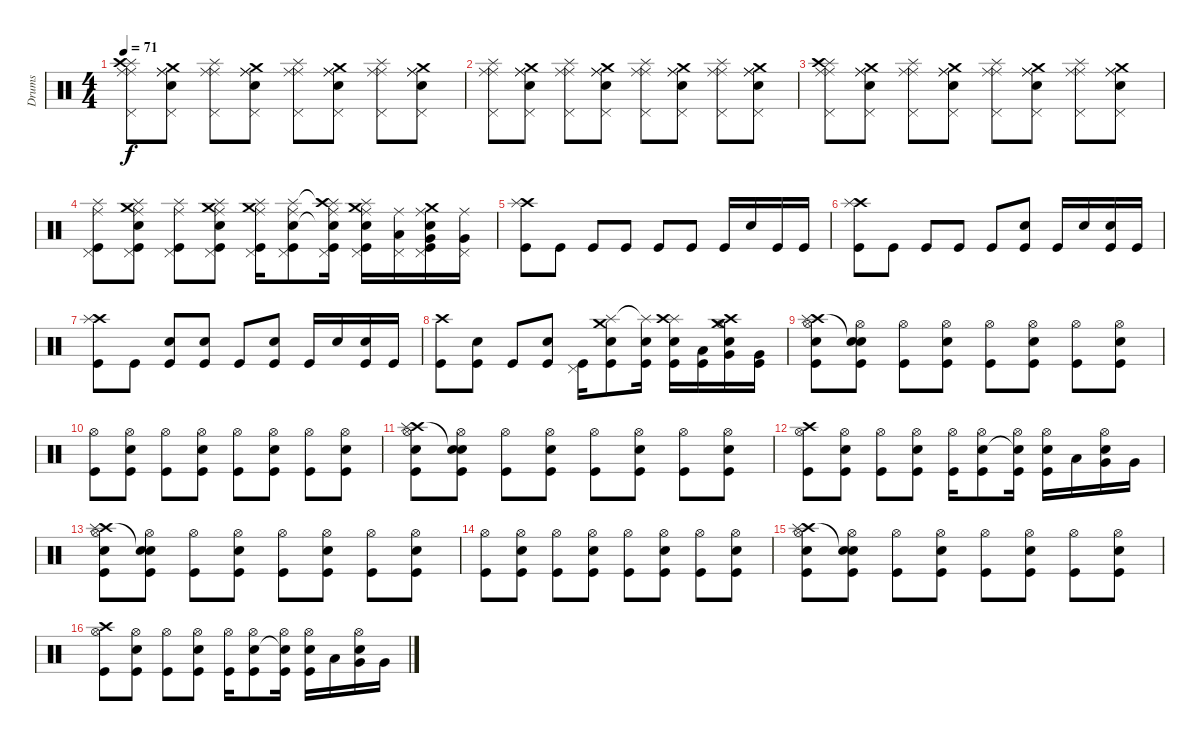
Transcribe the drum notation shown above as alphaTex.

\track ("Drums" "Drums") {instrument percussion}
\staff {score}
\articulation defaults
\ts (4 4)
\tempo 71
\clef neutral
\ks c
("Splash (hit)" "Crash high (hit)" "Ride (middle)" "Pedal Hi-Hat (hit)" "Ride (middle)").8{dy f} ("Snare (hit) 2" "Ride (middle)" "Pedal Hi-Hat (hit)" "Ride (middle)" "Crash medium (hit)").8 ("Ride (middle)" "Pedal Hi-Hat (hit)" "Ride (middle)" "Splash (hit)").8 ("Electric Snare (hit)" "Ride (middle)" "Pedal Hi-Hat (hit)" "Ride (middle)" "Crash medium (hit)").8 ("Ride (middle)" "Pedal Hi-Hat (hit)" "Ride (middle)" "Splash (hit)").8 ("Snare (hit) 2" "Ride (middle)" "Pedal Hi-Hat (hit)" "Ride (middle)" "Crash medium (hit)").8 ("Ride (middle)" "Pedal Hi-Hat (hit)" "Ride (middle)" "Splash (hit)").8 ("Electric Snare (hit)" "Ride (middle)" "Pedal Hi-Hat (hit)" "Ride (middle)" "Crash medium (hit)").8 |
("Ride (middle)" "Pedal Hi-Hat (hit)" "Ride (middle)" "Splash (hit)").8 ("Snare (hit) 2" "Ride (middle)" "Pedal Hi-Hat (hit)" "Ride (middle)" "Crash medium (hit)").8 ("Ride (middle)" "Pedal Hi-Hat (hit)" "Ride (middle)" "Splash (hit)").8 ("Electric Snare (hit)" "Ride (middle)" "Pedal Hi-Hat (hit)" "Ride (middle)" "Crash medium (hit)").8 ("Ride (middle)" "Pedal Hi-Hat (hit)" "Ride (middle)" "Splash (hit)").8 ("Snare (hit) 2" "Ride (middle)" "Pedal Hi-Hat (hit)" "Ride (middle)" "Crash medium (hit)").8 ("Ride (middle)" "Pedal Hi-Hat (hit)" "Ride (middle)" "Splash (hit)").8 ("Electric Snare (hit)" "Ride (middle)" "Pedal Hi-Hat (hit)" "Ride (middle)" "Crash medium (hit)").8 |
("Splash (hit)" "Crash high (hit)" "Ride (middle)" "Pedal Hi-Hat (hit)" "Ride (middle)").8 ("Snare (hit) 2" "Ride (middle)" "Pedal Hi-Hat (hit)" "Ride (middle)" "Crash medium (hit)").8 ("Ride (middle)" "Pedal Hi-Hat (hit)" "Ride (middle)" "Splash (hit)").8 ("Electric Snare (hit)" "Ride (middle)" "Pedal Hi-Hat (hit)" "Ride (middle)" "Crash medium (hit)").8 ("Ride (middle)" "Pedal Hi-Hat (hit)" "Ride (middle)" "Splash (hit)").8 ("Snare (hit) 2" "Ride (middle)" "Pedal Hi-Hat (hit)" "Ride (middle)" "Crash medium (hit)").8 ("Ride (middle)" "Pedal Hi-Hat (hit)" "Ride (middle)" "Splash (hit)").8 ("Electric Snare (hit)" "Ride (middle)" "Pedal Hi-Hat (hit)" "Ride (middle)" "Crash medium (hit)").8 |
("Splash (hit)" "Kick (hit)" "Pedal Hi-Hat (hit)" "Ride (middle)").8 ("Snare (hit) 2" "Splash (hit)" "Kick (hit)" "Pedal Hi-Hat (hit)" "Ride (middle)" "Crash medium (hit)").8 ("Splash (hit)" "Kick (hit)" "Pedal Hi-Hat (hit)" "Ride (middle)").8 ("Electric Snare (hit)" "Splash (hit)" "Kick (hit)" "Pedal Hi-Hat (hit)" "Ride (middle)" "Crash medium (hit)").8 ("Splash (hit)" "Kick (hit)" "Pedal Hi-Hat (hit)" "Ride (middle)" "Crash medium (hit)").16 ("Snare (hit) 2" "Splash (hit)" "Kick (hit)" "Pedal Hi-Hat (hit)" "Ride (middle)").8 ("Snare (hit) 2"{t} "Splash (hit)"{t} "Kick (hit)" "Pedal Hi-Hat (hit)" "Ride (middle)" "Crash high (hit)").16 ("Electric Snare (hit)" "Splash (hit)" "Kick (hit)" "Pedal Hi-Hat (hit)" "Ride (middle)" "Crash medium (hit)").16 ("Low Floor Tom (hit)" "Pedal Hi-Hat (hit)" "Ride (middle)").16 ("Electric Snare (hit)" "Kick (hit)" "Very Low Tom (hit)" "Pedal Hi-Hat (hit)" "Ride (middle)" "Crash medium (hit)").16 ("Very Low Tom (hit)" "Pedal Hi-Hat (hit)" "Ride (middle)").16 |
("Kick (hit)" "Crash high (hit)" "Splash (hit)").8 "Kick (hit)".8 "Kick (hit)".8 "Kick (hit)".8 "Kick (hit)".8 "Kick (hit)".8 "Kick (hit)".16 "Electric Snare (hit)".16 "Kick (hit)".16 "Kick (hit)".16 |
("Kick (hit)" "Crash high (hit)" "Splash (hit)").8 "Kick (hit)".8 "Kick (hit)".8 "Kick (hit)".8 "Kick (hit)".8 ("Kick (hit)" "Electric Snare (hit)").8 "Kick (hit)".16 "Electric Snare (hit)".16 ("Kick (hit)" "Electric Snare (hit)").16 "Kick (hit)".16 |
("Kick (hit)" "Crash high (hit)" "Splash (hit)").8 "Kick (hit)".8 ("Kick (hit)" "Electric Snare (hit)").8 ("Kick (hit)" "Electric Snare (hit)").8 "Kick (hit)".8 ("Kick (hit)" "Electric Snare (hit)").8 "Kick (hit)".16 "Electric Snare (hit)".16 ("Kick (hit)" "Electric Snare (hit)").16 "Kick (hit)".16 |
("Kick (hit)" "Crash high (hit)").8 ("Snare (hit) 2" "Kick (hit)").8 "Kick (hit)".8 ("Electric Snare (hit)" "Kick (hit)").8 ("Pedal Hi-Hat (hit)" "Kick (hit)").16 ("Snare (hit) 2" "Splash (hit)" "Kick (hit)" "Crash medium (hit)").8 ("Electric Snare (hit)" "Splash (hit)"{t} "Kick (hit)").16 ("Electric Snare (hit)" "Splash (hit)" "Kick (hit)" "Crash high (hit)").16 ("Kick (hit)" "Low Floor Tom (hit)").16 ("Electric Snare (hit)" "Hi-Hat (open)" "Very Low Tom (hit)" "Crash medium (hit)" "Crash high (hit)").16 ("Kick (hit)" "Very Low Tom (hit)").16 |
("Snare (hit) 2" "Hi-Hat (open)" "Kick (hit)" "Crash high (hit)" "Splash (hit)").8 ("Snare (hit) 2" "Hi-Hat (open)" "Kick (hit)" "Snare (hit)"{t}).8 ("Hi-Hat (open)" "Kick (hit)").8 ("Electric Snare (hit)" "Hi-Hat (open)" "Kick (hit)").8 ("Hi-Hat (open)" "Kick (hit)").8 ("Snare (hit) 2" "Hi-Hat (open)" "Kick (hit)").8 ("Hi-Hat (open)" "Kick (hit)").8 ("Electric Snare (hit)" "Hi-Hat (open)" "Kick (hit)").8 |
("Hi-Hat (open)" "Kick (hit)").8 ("Snare (hit) 2" "Hi-Hat (open)" "Kick (hit)").8 ("Hi-Hat (open)" "Kick (hit)").8 ("Electric Snare (hit)" "Hi-Hat (open)" "Kick (hit)").8 ("Hi-Hat (open)" "Kick (hit)").8 ("Snare (hit) 2" "Hi-Hat (open)" "Kick (hit)").8 ("Hi-Hat (open)" "Kick (hit)").8 ("Electric Snare (hit)" "Hi-Hat (open)" "Kick (hit)").8 |
("Snare (hit) 2" "Hi-Hat (open)" "Kick (hit)" "Crash high (hit)" "Splash (hit)").8 ("Snare (hit) 2" "Hi-Hat (open)" "Kick (hit)" "Snare (hit)"{t}).8 ("Hi-Hat (open)" "Kick (hit)").8 ("Electric Snare (hit)" "Hi-Hat (open)" "Kick (hit)").8 ("Hi-Hat (open)" "Kick (hit)").8 ("Snare (hit) 2" "Hi-Hat (open)" "Kick (hit)").8 ("Hi-Hat (open)" "Kick (hit)").8 ("Electric Snare (hit)" "Hi-Hat (open)" "Kick (hit)").8 |
("Hi-Hat (open)" "Kick (hit)" "Crash high (hit)").8 ("Snare (hit) 2" "Hi-Hat (open)" "Kick (hit)").8 ("Hi-Hat (open)" "Kick (hit)").8 ("Electric Snare (hit)" "Hi-Hat (open)" "Kick (hit)").8 ("Hi-Hat (open)" "Kick (hit)").16 ("Snare (hit) 2" "Hi-Hat (open)" "Kick (hit)").8 ("Snare (hit) 2"{t} "Hi-Hat (open)" "Kick (hit)").16 ("Electric Snare (hit)" "Hi-Hat (open)" "Kick (hit)").16 "Low Floor Tom (hit)".16 ("Electric Snare (hit)" "Hi-Hat (open)" "Very Low Tom (hit)").16 "Very Low Tom (hit)".16 |
("Snare (hit) 2" "Hi-Hat (open)" "Kick (hit)" "Crash high (hit)" "Splash (hit)").8 ("Snare (hit) 2" "Hi-Hat (open)" "Kick (hit)" "Snare (hit)"{t}).8 ("Hi-Hat (open)" "Kick (hit)").8 ("Electric Snare (hit)" "Hi-Hat (open)" "Kick (hit)").8 ("Hi-Hat (open)" "Kick (hit)").8 ("Snare (hit) 2" "Hi-Hat (open)" "Kick (hit)").8 ("Hi-Hat (open)" "Kick (hit)").8 ("Electric Snare (hit)" "Hi-Hat (open)" "Kick (hit)").8 |
("Hi-Hat (open)" "Kick (hit)").8 ("Snare (hit) 2" "Hi-Hat (open)" "Kick (hit)").8 ("Hi-Hat (open)" "Kick (hit)").8 ("Electric Snare (hit)" "Hi-Hat (open)" "Kick (hit)").8 ("Hi-Hat (open)" "Kick (hit)").8 ("Snare (hit) 2" "Hi-Hat (open)" "Kick (hit)").8 ("Hi-Hat (open)" "Kick (hit)").8 ("Electric Snare (hit)" "Hi-Hat (open)" "Kick (hit)").8 |
("Snare (hit) 2" "Hi-Hat (open)" "Kick (hit)" "Crash high (hit)" "Splash (hit)").8 ("Snare (hit) 2" "Hi-Hat (open)" "Kick (hit)" "Snare (hit)"{t}).8 ("Hi-Hat (open)" "Kick (hit)").8 ("Electric Snare (hit)" "Hi-Hat (open)" "Kick (hit)").8 ("Hi-Hat (open)" "Kick (hit)").8 ("Snare (hit) 2" "Hi-Hat (open)" "Kick (hit)").8 ("Hi-Hat (open)" "Kick (hit)").8 ("Electric Snare (hit)" "Hi-Hat (open)" "Kick (hit)").8 |
("Hi-Hat (open)" "Kick (hit)" "Crash high (hit)").8 ("Snare (hit) 2" "Hi-Hat (open)" "Kick (hit)").8 ("Hi-Hat (open)" "Kick (hit)").8 ("Electric Snare (hit)" "Hi-Hat (open)" "Kick (hit)").8 ("Hi-Hat (open)" "Kick (hit)").16 ("Snare (hit) 2" "Hi-Hat (open)" "Kick (hit)").8 ("Snare (hit) 2"{t} "Hi-Hat (open)" "Kick (hit)").16 ("Electric Snare (hit)" "Hi-Hat (open)" "Kick (hit)").16 "Low Floor Tom (hit)".16 ("Electric Snare (hit)" "Hi-Hat (open)" "Very Low Tom (hit)").16 "Very Low Tom (hit)".16
